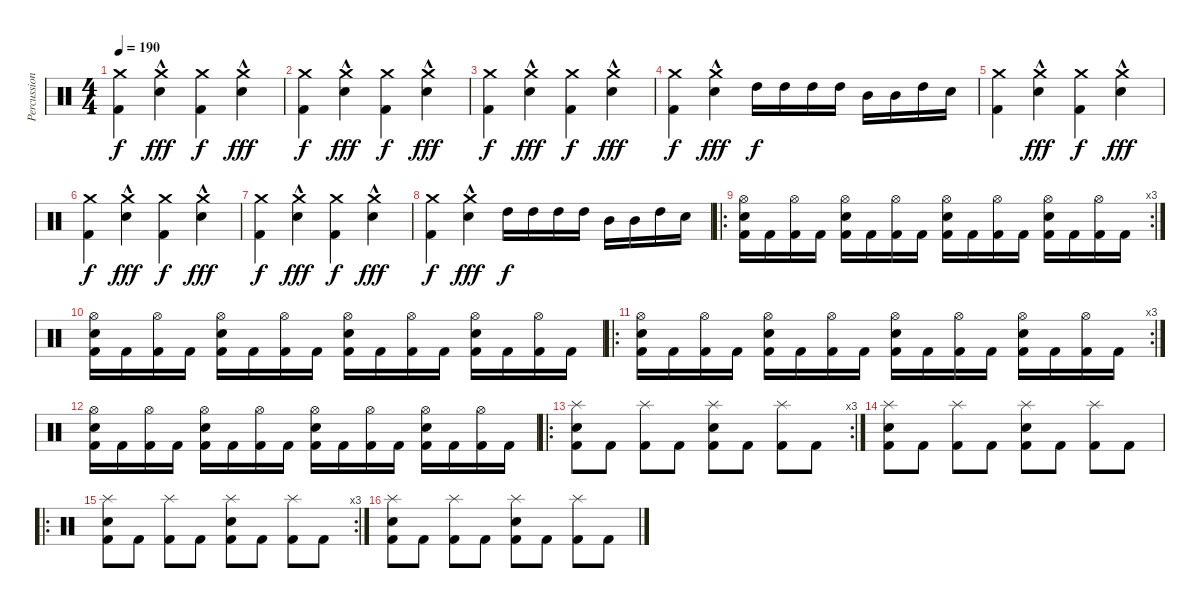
\track ("Percussion" "Percussion") {instrument percussion}
\staff {score}
\articulation defaults
\ts (4 4)
\tempo 190
\clef neutral
\ks c
("Crash medium (hit)" "Kick (hit) 2").4{dy f} ("Crash medium (hit)" "Snare (hit) 2"{hac}).4{dy fff} ("Crash medium (hit)" "Kick (hit) 2").4{dy f} ("Crash medium (hit)" "Snare (hit) 2"{hac}).4{dy fff} |
("Crash medium (hit)" "Kick (hit) 2").4{dy f} ("Crash medium (hit)" "Snare (hit) 2"{hac}).4{dy fff} ("Crash medium (hit)" "Kick (hit) 2").4{dy f} ("Crash medium (hit)" "Snare (hit) 2"{hac}).4{dy fff} |
("Crash medium (hit)" "Kick (hit) 2").4{dy f} ("Crash medium (hit)" "Snare (hit) 2"{hac}).4{dy fff} ("Crash medium (hit)" "Kick (hit) 2").4{dy f} ("Crash medium (hit)" "Snare (hit) 2"{hac}).4{dy fff} |
("Crash medium (hit)" "Kick (hit) 2").4{dy f} ("Crash medium (hit)" "Snare (hit) 2"{hac}).4{dy fff} "High Tom (hit)".16{dy f} "High Tom (hit)".16 "High Tom (hit)".16 "High Tom (hit)".16 "Mid Tom (hit)".16 "Mid Tom (hit)".16 "High Tom (hit)".16 "Snare (hit) 2".16 |
("Crash medium (hit)" "Kick (hit) 2").4 ("Crash medium (hit)" "Snare (hit) 2"{hac}).4{dy fff} ("Crash medium (hit)" "Kick (hit) 2").4{dy f} ("Crash medium (hit)" "Snare (hit) 2"{hac}).4{dy fff} |
("Crash medium (hit)" "Kick (hit) 2").4{dy f} ("Crash medium (hit)" "Snare (hit) 2"{hac}).4{dy fff} ("Crash medium (hit)" "Kick (hit) 2").4{dy f} ("Crash medium (hit)" "Snare (hit) 2"{hac}).4{dy fff} |
("Crash medium (hit)" "Kick (hit) 2").4{dy f} ("Crash medium (hit)" "Snare (hit) 2"{hac}).4{dy fff} ("Crash medium (hit)" "Kick (hit) 2").4{dy f} ("Crash medium (hit)" "Snare (hit) 2"{hac}).4{dy fff} |
("Crash medium (hit)" "Kick (hit) 2").4{dy f} ("Crash medium (hit)" "Snare (hit) 2"{hac}).4{dy fff} "High Tom (hit)".16{dy f} "High Tom (hit)".16 "High Tom (hit)".16 "High Tom (hit)".16 "Mid Tom (hit)".16 "Mid Tom (hit)".16 "High Tom (hit)".16 "Snare (hit) 2".16 |
\ro
\rc 3
("Hi-Hat (open)" "Snare (hit) 2" "Kick (hit) 2").16 "Kick (hit) 2".16 ("Hi-Hat (open)" "Kick (hit) 2").16 "Kick (hit) 2".16 ("Hi-Hat (open)" "Snare (hit) 2" "Kick (hit) 2").16 "Kick (hit) 2".16 ("Hi-Hat (open)" "Kick (hit) 2").16 "Kick (hit) 2".16 ("Hi-Hat (open)" "Snare (hit) 2" "Kick (hit) 2").16 "Kick (hit) 2".16 ("Hi-Hat (open)" "Kick (hit) 2").16 "Kick (hit) 2".16 ("Hi-Hat (open)" "Snare (hit) 2" "Kick (hit) 2").16 "Kick (hit) 2".16 ("Hi-Hat (open)" "Kick (hit) 2").16 "Kick (hit) 2".16 |
("Hi-Hat (open)" "Snare (hit) 2" "Kick (hit) 2").16 "Kick (hit) 2".16 ("Hi-Hat (open)" "Kick (hit) 2").16 "Kick (hit) 2".16 ("Hi-Hat (open)" "Snare (hit) 2" "Kick (hit) 2").16 "Kick (hit) 2".16 ("Hi-Hat (open)" "Kick (hit) 2").16 "Kick (hit) 2".16 ("Hi-Hat (open)" "Snare (hit) 2" "Kick (hit) 2").16 "Kick (hit) 2".16 ("Hi-Hat (open)" "Kick (hit) 2").16 "Kick (hit) 2".16 ("Hi-Hat (open)" "Snare (hit) 2" "Kick (hit) 2").16 "Kick (hit) 2".16 ("Hi-Hat (open)" "Kick (hit) 2").16 "Kick (hit) 2".16 |
\ro
\rc 3
("Hi-Hat (open)" "Snare (hit) 2" "Kick (hit) 2").16 "Kick (hit) 2".16 ("Hi-Hat (open)" "Kick (hit) 2").16 "Kick (hit) 2".16 ("Hi-Hat (open)" "Snare (hit) 2" "Kick (hit) 2").16 "Kick (hit) 2".16 ("Hi-Hat (open)" "Kick (hit) 2").16 "Kick (hit) 2".16 ("Hi-Hat (open)" "Snare (hit) 2" "Kick (hit) 2").16 "Kick (hit) 2".16 ("Hi-Hat (open)" "Kick (hit) 2").16 "Kick (hit) 2".16 ("Hi-Hat (open)" "Snare (hit) 2" "Kick (hit) 2").16 "Kick (hit) 2".16 ("Hi-Hat (open)" "Kick (hit) 2").16 "Kick (hit) 2".16 |
("Hi-Hat (open)" "Snare (hit) 2" "Kick (hit) 2").16 "Kick (hit) 2".16 ("Hi-Hat (open)" "Kick (hit) 2").16 "Kick (hit) 2".16 ("Hi-Hat (open)" "Snare (hit) 2" "Kick (hit) 2").16 "Kick (hit) 2".16 ("Hi-Hat (open)" "Kick (hit) 2").16 "Kick (hit) 2".16 ("Hi-Hat (open)" "Snare (hit) 2" "Kick (hit) 2").16 "Kick (hit) 2".16 ("Hi-Hat (open)" "Kick (hit) 2").16 "Kick (hit) 2".16 ("Hi-Hat (open)" "Snare (hit) 2" "Kick (hit) 2").16 "Kick (hit) 2".16 ("Hi-Hat (open)" "Kick (hit) 2").16 "Kick (hit) 2".16 |
\ro
\rc 3
("Splash (hit)" "Snare (hit) 2" "Kick (hit) 2").8 "Kick (hit) 2".8 ("Splash (hit)" "Kick (hit) 2").8 "Kick (hit) 2".8 ("Splash (hit)" "Snare (hit) 2" "Kick (hit) 2").8 "Kick (hit) 2".8 ("Splash (hit)" "Kick (hit) 2").8 "Kick (hit) 2".8 |
("Splash (hit)" "Snare (hit) 2" "Kick (hit) 2").8 "Kick (hit) 2".8 ("Splash (hit)" "Kick (hit) 2").8 "Kick (hit) 2".8 ("Splash (hit)" "Snare (hit) 2" "Kick (hit) 2").8 "Kick (hit) 2".8 ("Splash (hit)" "Kick (hit) 2").8 "Kick (hit) 2".8 |
\ro
\rc 3
("Splash (hit)" "Snare (hit) 2" "Kick (hit) 2").8 "Kick (hit) 2".8 ("Splash (hit)" "Kick (hit) 2").8 "Kick (hit) 2".8 ("Splash (hit)" "Snare (hit) 2" "Kick (hit) 2").8 "Kick (hit) 2".8 ("Splash (hit)" "Kick (hit) 2").8 "Kick (hit) 2".8 |
("Splash (hit)" "Snare (hit) 2" "Kick (hit) 2").8 "Kick (hit) 2".8 ("Splash (hit)" "Kick (hit) 2").8 "Kick (hit) 2".8 ("Splash (hit)" "Snare (hit) 2" "Kick (hit) 2").8 "Kick (hit) 2".8 ("Splash (hit)" "Kick (hit) 2").8 "Kick (hit) 2".8
